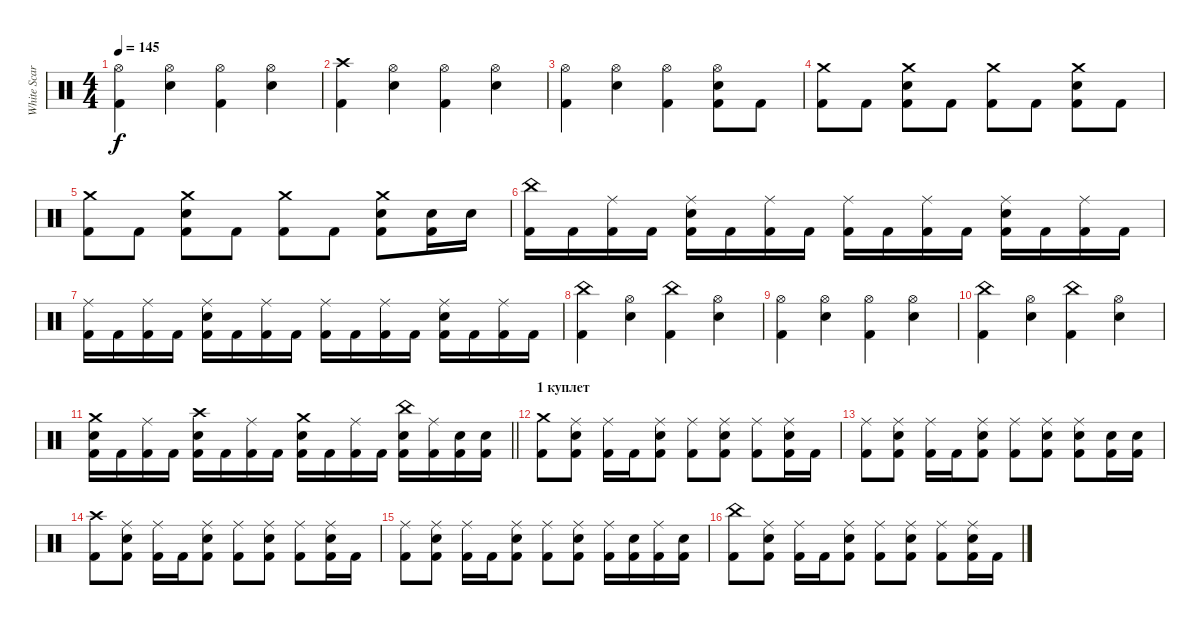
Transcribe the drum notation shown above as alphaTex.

\track ("White Scar" "White Scar") {instrument percussion}
\staff {score}
\articulation defaults
\ts (4 4)
\tempo 145
\clef neutral
\ks c
("Hi-Hat (open)" "Kick (hit) 2").4{dy f} ("Hi-Hat (open)" "Snare (hit) 2").4 ("Hi-Hat (open)" "Kick (hit) 2").4 ("Hi-Hat (open)" "Snare (hit) 2").4 |
("Crash high (hit)" "Kick (hit) 2").4 ("Hi-Hat (open)" "Snare (hit) 2").4 ("Hi-Hat (open)" "Kick (hit) 2").4 ("Hi-Hat (open)" "Snare (hit) 2").4 |
("Hi-Hat (open)" "Kick (hit) 2").4 ("Hi-Hat (open)" "Snare (hit) 2").4 ("Hi-Hat (open)" "Kick (hit) 2").4 ("Hi-Hat (open)" "Snare (hit) 2" "Kick (hit) 2").8 "Kick (hit) 2".8 |
("Crash medium (hit)" "Kick (hit) 2").8 "Kick (hit) 2".8 ("Snare (hit) 2" "Crash medium (hit)" "Kick (hit) 2").8 "Kick (hit) 2".8 ("Crash medium (hit)" "Kick (hit) 2").8 "Kick (hit) 2".8 ("Snare (hit) 2" "Crash medium (hit)" "Kick (hit) 2").8 "Kick (hit) 2".8 |
("Crash medium (hit)" "Kick (hit) 2").8 "Kick (hit) 2".8 ("Snare (hit) 2" "Crash medium (hit)" "Kick (hit) 2").8 "Kick (hit) 2".8 ("Crash medium (hit)" "Kick (hit) 2").8 "Kick (hit) 2".8 ("Snare (hit) 2" "Crash medium (hit)" "Kick (hit) 2").8 ("Snare (hit) 2" "Kick (hit) 2").16 "Snare (hit) 2".16 |
("China (hit)" "Kick (hit) 2").16 "Kick (hit) 2".16 ("Ride (middle)" "Kick (hit) 2").16 "Kick (hit) 2".16 ("Snare (hit) 2" "Ride (middle)" "Kick (hit) 2").16 "Kick (hit) 2".16 ("Ride (middle)" "Kick (hit) 2").16 "Kick (hit) 2".16 ("Ride (middle)" "Kick (hit) 2").16 "Kick (hit) 2".16 ("Ride (middle)" "Kick (hit) 2").16 "Kick (hit) 2".16 ("Snare (hit) 2" "Ride (middle)" "Kick (hit) 2").16 "Kick (hit) 2".16 ("Ride (middle)" "Kick (hit) 2").16 "Kick (hit) 2".16 |
("Ride (middle)" "Kick (hit) 2").16 "Kick (hit) 2".16 ("Ride (middle)" "Kick (hit) 2").16 "Kick (hit) 2".16 ("Snare (hit) 2" "Ride (middle)" "Kick (hit) 2").16 "Kick (hit) 2".16 ("Ride (middle)" "Kick (hit) 2").16 "Kick (hit) 2".16 ("Ride (middle)" "Kick (hit) 2").16 "Kick (hit) 2".16 ("Ride (middle)" "Kick (hit) 2").16 "Kick (hit) 2".16 ("Snare (hit) 2" "Ride (middle)" "Kick (hit) 2").16 "Kick (hit) 2".16 ("Ride (middle)" "Kick (hit) 2").16 "Kick (hit) 2".16 |
("China (hit)" "Kick (hit) 2").4 ("Hi-Hat (open)" "Snare (hit) 2").4 ("China (hit)" "Kick (hit) 2").4 ("Hi-Hat (open)" "Snare (hit) 2").4 |
("Hi-Hat (open)" "Kick (hit) 2").4 ("Hi-Hat (open)" "Snare (hit) 2").4 ("Hi-Hat (open)" "Kick (hit) 2").4 ("Hi-Hat (open)" "Snare (hit) 2").4 |
("China (hit)" "Kick (hit) 2").4 ("Hi-Hat (open)" "Snare (hit) 2").4 ("China (hit)" "Kick (hit) 2").4 ("Hi-Hat (open)" "Snare (hit) 2").4 |
\barLineRight lightlight
("Snare (hit) 2" "Crash medium (hit)" "Kick (hit) 2").16 "Kick (hit) 2".16 ("Ride (middle)" "Kick (hit) 2").16 "Kick (hit) 2".16 ("Snare (hit) 2" "Crash high (hit)" "Kick (hit) 2").16 "Kick (hit) 2".16 ("Ride (middle)" "Kick (hit) 2").16 "Kick (hit) 2".16 ("Snare (hit) 2" "Crash medium (hit)" "Kick (hit) 2").16 "Kick (hit) 2".16 ("Ride (middle)" "Kick (hit) 2").16 "Kick (hit) 2".16 ("Snare (hit) 2" "China (hit)" "Kick (hit) 2").16 ("Ride (middle)" "Kick (hit) 2").16 ("Snare (hit) 2" "Kick (hit) 2").16 ("Snare (hit) 2" "Kick (hit) 2").16 |
\section ("" "1 куплет")
("Crash medium (hit)" "Kick (hit) 2").8 ("Ride (middle)" "Snare (hit) 2" "Kick (hit) 2").8 ("Ride (middle)" "Kick (hit) 2").16 "Kick (hit) 2".16 ("Ride (middle)" "Snare (hit) 2" "Kick (hit) 2").8 ("Ride (middle)" "Kick (hit) 2").8 ("Ride (middle)" "Snare (hit) 2" "Kick (hit) 2").8 ("Ride (middle)" "Kick (hit) 2").8 ("Ride (middle)" "Snare (hit) 2" "Kick (hit) 2").16 "Kick (hit) 2".16 |
("Ride (middle)" "Kick (hit) 2").8 ("Ride (middle)" "Snare (hit) 2" "Kick (hit) 2").8 ("Ride (middle)" "Kick (hit) 2").16 "Kick (hit) 2".16 ("Ride (middle)" "Snare (hit) 2" "Kick (hit) 2").8 ("Ride (middle)" "Kick (hit) 2").8 ("Ride (middle)" "Snare (hit) 2" "Kick (hit) 2").8 ("Ride (middle)" "Snare (hit) 2" "Kick (hit) 2").8 ("Snare (hit) 2" "Kick (hit) 2").16 ("Snare (hit) 2" "Kick (hit) 2").16 |
("Crash high (hit)" "Kick (hit) 2").8 ("Ride (middle)" "Snare (hit) 2" "Kick (hit) 2").8 ("Ride (middle)" "Kick (hit) 2").16 "Kick (hit) 2".16 ("Ride (middle)" "Snare (hit) 2" "Kick (hit) 2").8 ("Ride (middle)" "Kick (hit) 2").8 ("Ride (middle)" "Snare (hit) 2" "Kick (hit) 2").8 ("Ride (middle)" "Kick (hit) 2").8 ("Ride (middle)" "Snare (hit) 2" "Kick (hit) 2").16 "Kick (hit) 2".16 |
("Ride (middle)" "Kick (hit) 2").8 ("Ride (middle)" "Snare (hit) 2" "Kick (hit) 2").8 ("Ride (middle)" "Kick (hit) 2").16 "Kick (hit) 2".16 ("Ride (middle)" "Snare (hit) 2" "Kick (hit) 2").8 ("Ride (middle)" "Kick (hit) 2").8 ("Ride (middle)" "Snare (hit) 2" "Kick (hit) 2").8 ("Ride (middle)" "Kick (hit) 2").16 ("Snare (hit) 2" "Kick (hit) 2").16 ("Ride (middle)" "Kick (hit) 2").16 ("Snare (hit) 2" "Kick (hit) 2").16 |
("China (hit)" "Kick (hit) 2").8 ("Ride (middle)" "Snare (hit) 2" "Kick (hit) 2").8 ("Ride (middle)" "Kick (hit) 2").16 "Kick (hit) 2".16 ("Ride (middle)" "Snare (hit) 2" "Kick (hit) 2").8 ("Ride (middle)" "Kick (hit) 2").8 ("Ride (middle)" "Snare (hit) 2" "Kick (hit) 2").8 ("Ride (middle)" "Kick (hit) 2").8 ("Ride (middle)" "Snare (hit) 2" "Kick (hit) 2").16 "Kick (hit) 2".16
